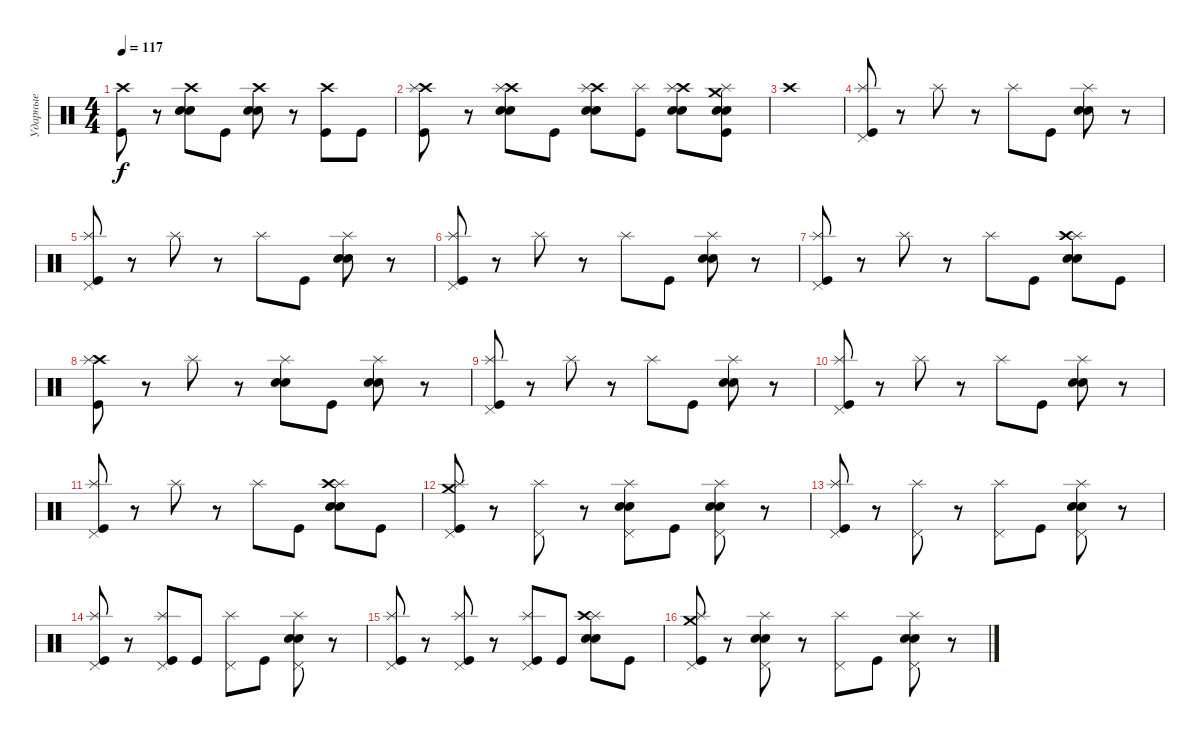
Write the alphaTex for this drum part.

\track ("Ударные" "Ударные") {instrument percussion}
\staff {score}
\articulation defaults
\ts (4 4)
\tempo 117
\clef neutral
\ks c
("Crash high (hit)" "Kick (hit)").8{dy f} r.8 ("Crash high (hit)" "Snare (hit) 2" "Snare (hit) 2").8 "Kick (hit)".8 ("Crash high (hit)" "Snare (hit) 2" "Snare (hit) 2").8 r.8 ("Crash high (hit)" "Kick (hit)").8 "Kick (hit)".8 |
("Crash high (hit)" "Splash (hit)" "Kick (hit)").8 r.8 ("Crash high (hit)" "Splash (hit)" "Snare (hit) 2" "Snare (hit) 2").8 "Kick (hit)".8 ("Crash high (hit)" "Splash (hit)" "Snare (hit) 2" "Snare (hit) 2").8 ("Splash (hit)" "Kick (hit)").8 ("Crash high (hit)" "Splash (hit)" "Snare (hit) 2" "Snare (hit) 2").8 ("Crash medium (hit)" "Splash (hit)" "Snare (hit) 2" "Snare (hit) 2" "Kick (hit)").8 |
"Crash high (hit)".1 |
("Pedal Hi-Hat (hit)" "Splash (hit)" "Kick (hit)").8 r.8 "Splash (hit)".8 r.8 "Splash (hit)".8 "Kick (hit)".8 ("Splash (hit)" "Electric Snare (hit)" "Electric Snare (hit)").8 r.8 |
("Pedal Hi-Hat (hit)" "Splash (hit)" "Kick (hit)").8 r.8 "Splash (hit)".8 r.8 "Splash (hit)".8 "Kick (hit)".8 ("Splash (hit)" "Electric Snare (hit)" "Electric Snare (hit)").8 r.8 |
("Pedal Hi-Hat (hit)" "Splash (hit)" "Kick (hit)").8 r.8 "Splash (hit)".8 r.8 "Splash (hit)".8 "Kick (hit)".8 ("Splash (hit)" "Electric Snare (hit)" "Electric Snare (hit)").8 r.8 |
("Pedal Hi-Hat (hit)" "Splash (hit)" "Kick (hit)").8 r.8 "Splash (hit)".8 r.8 "Splash (hit)".8 "Kick (hit)".8 ("Splash (hit)" "Crash high (hit)" "Electric Snare (hit)" "Electric Snare (hit)").8 "Kick (hit)".8 |
("Crash high (hit)" "Splash (hit)" "Kick (hit)").8 r.8 "Splash (hit)".8 r.8 ("Splash (hit)" "Electric Snare (hit)" "Electric Snare (hit)").8 "Kick (hit)".8 ("Splash (hit)" "Electric Snare (hit)" "Electric Snare (hit)").8 r.8 |
("Pedal Hi-Hat (hit)" "Splash (hit)" "Kick (hit)").8 r.8 "Splash (hit)".8 r.8 "Splash (hit)".8 "Kick (hit)".8 ("Splash (hit)" "Electric Snare (hit)" "Electric Snare (hit)").8 r.8 |
("Pedal Hi-Hat (hit)" "Splash (hit)" "Kick (hit)").8 r.8 "Splash (hit)".8 r.8 "Splash (hit)".8 "Kick (hit)".8 ("Splash (hit)" "Electric Snare (hit)" "Electric Snare (hit)").8 r.8 |
("Pedal Hi-Hat (hit)" "Splash (hit)" "Kick (hit)").8 r.8 "Splash (hit)".8 r.8 "Splash (hit)".8 "Kick (hit)".8 ("Splash (hit)" "Crash high (hit)" "Electric Snare (hit)" "Electric Snare (hit)").8 "Kick (hit)".8 |
("Crash medium (hit)" "Splash (hit)" "Pedal Hi-Hat (hit)" "Kick (hit)").8 r.8 ("Splash (hit)" "Pedal Hi-Hat (hit)").8 r.8 ("Splash (hit)" "Pedal Hi-Hat (hit)" "Electric Snare (hit)" "Electric Snare (hit)").8 "Kick (hit)".8 ("Splash (hit)" "Pedal Hi-Hat (hit)" "Electric Snare (hit)" "Electric Snare (hit)").8 r.8 |
("Pedal Hi-Hat (hit)" "Splash (hit)" "Kick (hit)").8 r.8 ("Splash (hit)" "Pedal Hi-Hat (hit)").8 r.8 ("Splash (hit)" "Pedal Hi-Hat (hit)").8 "Kick (hit)".8 ("Splash (hit)" "Pedal Hi-Hat (hit)" "Electric Snare (hit)" "Electric Snare (hit)").8 r.8 |
("Pedal Hi-Hat (hit)" "Splash (hit)" "Kick (hit)").8 r.8 ("Splash (hit)" "Pedal Hi-Hat (hit)" "Kick (hit)").8 "Kick (hit)".8 ("Splash (hit)" "Pedal Hi-Hat (hit)").8 "Kick (hit)".8 ("Splash (hit)" "Pedal Hi-Hat (hit)" "Electric Snare (hit)" "Electric Snare (hit)").8 r.8 |
("Pedal Hi-Hat (hit)" "Splash (hit)" "Kick (hit)").8 r.8 ("Splash (hit)" "Pedal Hi-Hat (hit)" "Kick (hit)").8 r.8 ("Splash (hit)" "Pedal Hi-Hat (hit)" "Kick (hit)").8 "Kick (hit)".8 ("Splash (hit)" "Crash high (hit)" "Electric Snare (hit)" "Electric Snare (hit)").8 "Kick (hit)".8 |
("Crash medium (hit)" "Splash (hit)" "Pedal Hi-Hat (hit)" "Kick (hit)").8 r.8 ("Splash (hit)" "Pedal Hi-Hat (hit)" "Electric Snare (hit)" "Electric Snare (hit)").8 r.8 ("Splash (hit)" "Pedal Hi-Hat (hit)").8 "Kick (hit)".8 ("Splash (hit)" "Pedal Hi-Hat (hit)" "Electric Snare (hit)" "Electric Snare (hit)").8 r.8
